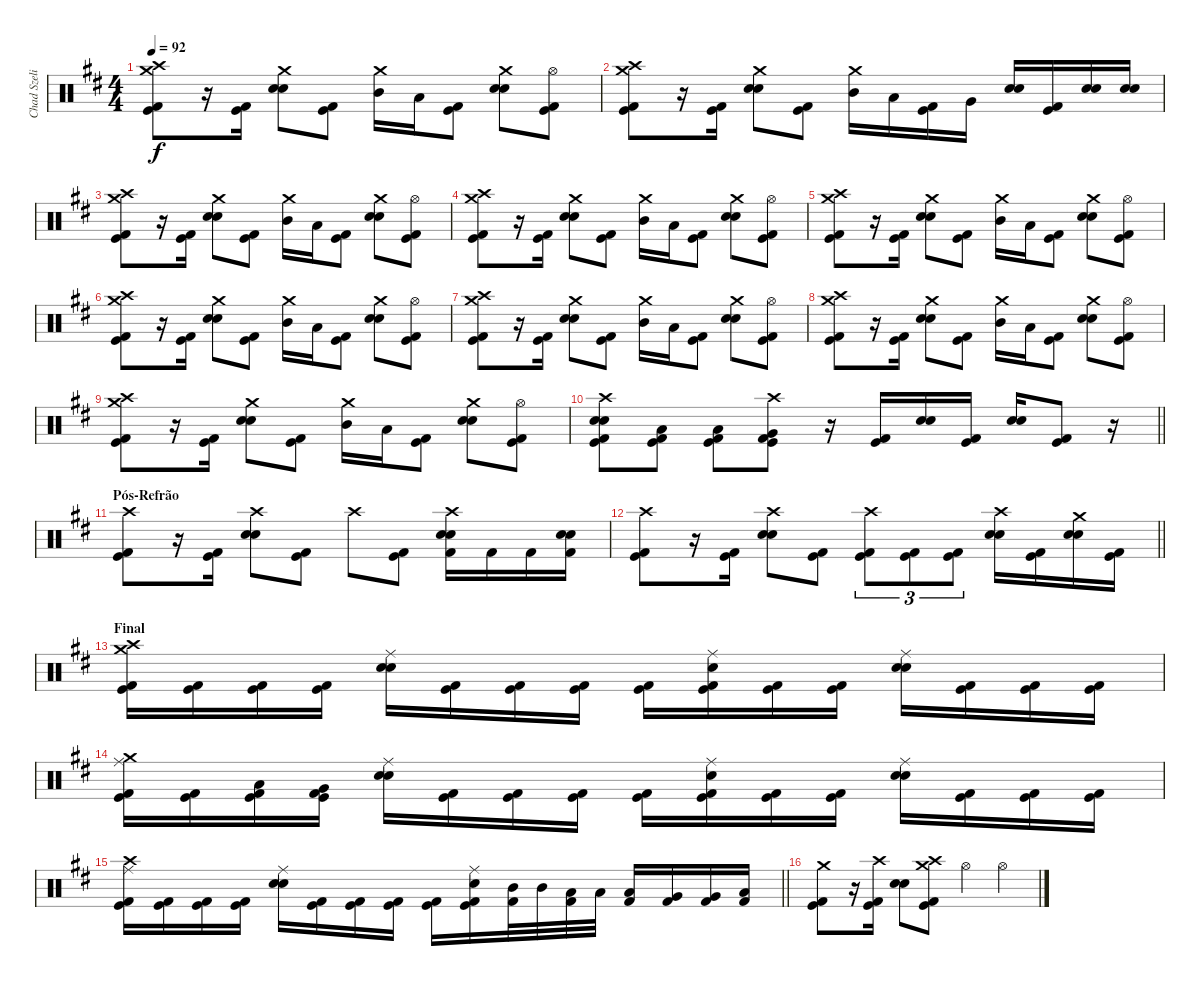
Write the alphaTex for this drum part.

\track ("Chad Szeliga" "Chad Szeli") {instrument percussion}
\staff {score}
\articulation defaults
\ts (4 4)
\tempo 92
\clef neutral
\ks d
("Crash high (hit)" "Kick (hit) 2" "Kick (hit)" "Crash medium (hit)").8{dy f} r.16 ("Kick (hit) 2" "Kick (hit)").16{beam Down} ("Crash medium (hit)" "Snare (hit) 2" "Snare (hit) 2").8 ("Kick (hit) 2" "Kick (hit)").8 ("Crash medium (hit)" "Mid Tom (hit)").16 "Low Tom (hit)".16 ("Kick (hit) 2" "Kick (hit)").8 ("Crash medium (hit)" "Snare (hit) 2" "Snare (hit) 2").8 ("Kick (hit) 2" "Kick (hit)" "Hi-Hat (open)").8 |
("Crash high (hit)" "Kick (hit) 2" "Kick (hit)" "Crash medium (hit)").8 r.16 ("Kick (hit) 2" "Kick (hit)").16{beam Down} ("Crash medium (hit)" "Snare (hit) 2" "Snare (hit) 2").8 ("Kick (hit) 2" "Kick (hit)").8 ("Crash medium (hit)" "Mid Tom (hit)").16 "Low Tom (hit)".16 ("Kick (hit) 2" "Kick (hit)").16 "Very Low Tom (hit)".16 ("Snare (hit) 2" "Snare (hit) 2").16 ("Kick (hit) 2" "Kick (hit)").16 ("Snare (hit) 2" "Snare (hit) 2").16 ("Snare (hit) 2" "Snare (hit) 2").16 |
("Crash high (hit)" "Kick (hit) 2" "Kick (hit)" "Crash medium (hit)").8 r.16 ("Kick (hit) 2" "Kick (hit)").16{beam Down} ("Crash medium (hit)" "Snare (hit) 2" "Snare (hit) 2").8 ("Kick (hit) 2" "Kick (hit)").8 ("Crash medium (hit)" "Mid Tom (hit)").16 "Low Tom (hit)".16 ("Kick (hit) 2" "Kick (hit)").8 ("Crash medium (hit)" "Snare (hit) 2" "Snare (hit) 2").8 ("Kick (hit) 2" "Kick (hit)" "Hi-Hat (open)").8 |
("Crash high (hit)" "Kick (hit) 2" "Kick (hit)" "Crash medium (hit)").8 r.16 ("Kick (hit) 2" "Kick (hit)").16{beam Down} ("Crash medium (hit)" "Snare (hit) 2" "Snare (hit) 2").8 ("Kick (hit) 2" "Kick (hit)").8 ("Crash medium (hit)" "Mid Tom (hit)").16 "Low Tom (hit)".16 ("Kick (hit) 2" "Kick (hit)").8 ("Crash medium (hit)" "Snare (hit) 2" "Snare (hit) 2").8 ("Kick (hit) 2" "Kick (hit)" "Hi-Hat (open)").8 |
("Crash high (hit)" "Kick (hit) 2" "Kick (hit)" "Crash medium (hit)").8 r.16 ("Kick (hit) 2" "Kick (hit)").16{beam Down} ("Crash medium (hit)" "Snare (hit) 2" "Snare (hit) 2").8 ("Kick (hit) 2" "Kick (hit)").8 ("Crash medium (hit)" "Mid Tom (hit)").16 "Low Tom (hit)".16 ("Kick (hit) 2" "Kick (hit)").8 ("Crash medium (hit)" "Snare (hit) 2" "Snare (hit) 2").8 ("Kick (hit) 2" "Kick (hit)" "Hi-Hat (open)").8 |
("Crash high (hit)" "Kick (hit) 2" "Kick (hit)" "Crash medium (hit)").8 r.16 ("Kick (hit) 2" "Kick (hit)").16{beam Down} ("Crash medium (hit)" "Snare (hit) 2" "Snare (hit) 2").8 ("Kick (hit) 2" "Kick (hit)").8 ("Crash medium (hit)" "Mid Tom (hit)").16 "Low Tom (hit)".16 ("Kick (hit) 2" "Kick (hit)").8 ("Crash medium (hit)" "Snare (hit) 2" "Snare (hit) 2").8 ("Kick (hit) 2" "Kick (hit)" "Hi-Hat (open)").8 |
("Crash high (hit)" "Kick (hit) 2" "Kick (hit)" "Crash medium (hit)").8 r.16 ("Kick (hit) 2" "Kick (hit)").16{beam Down} ("Crash medium (hit)" "Snare (hit) 2" "Snare (hit) 2").8 ("Kick (hit) 2" "Kick (hit)").8 ("Crash medium (hit)" "Mid Tom (hit)").16 "Low Tom (hit)".16 ("Kick (hit) 2" "Kick (hit)").8 ("Crash medium (hit)" "Snare (hit) 2" "Snare (hit) 2").8 ("Kick (hit) 2" "Kick (hit)" "Hi-Hat (open)").8 |
("Crash high (hit)" "Kick (hit) 2" "Kick (hit)" "Crash medium (hit)").8 r.16 ("Kick (hit) 2" "Kick (hit)").16{beam Down} ("Crash medium (hit)" "Snare (hit) 2" "Snare (hit) 2").8 ("Kick (hit) 2" "Kick (hit)").8 ("Crash medium (hit)" "Mid Tom (hit)").16 "Low Tom (hit)".16 ("Kick (hit) 2" "Kick (hit)").8 ("Crash medium (hit)" "Snare (hit) 2" "Snare (hit) 2").8 ("Kick (hit) 2" "Kick (hit)" "Hi-Hat (open)").8 |
("Crash high (hit)" "Kick (hit) 2" "Kick (hit)" "Crash medium (hit)").8 r.16 ("Kick (hit) 2" "Kick (hit)").16{beam Down} ("Crash medium (hit)" "Snare (hit) 2" "Snare (hit) 2").8 ("Kick (hit) 2" "Kick (hit)").8 ("Crash medium (hit)" "Mid Tom (hit)").16 "Low Tom (hit)".16 ("Kick (hit) 2" "Kick (hit)").8 ("Crash medium (hit)" "Snare (hit) 2" "Snare (hit) 2").8 ("Kick (hit) 2" "Kick (hit)" "Hi-Hat (open)").8 |
\barLineRight lightlight
("Crash high (hit)" "Kick (hit) 2" "Kick (hit)" "Snare (hit) 2" "Snare (hit) 2").8 ("Kick (hit) 2" "Kick (hit)" "Low Tom (hit)").8 ("Kick (hit) 2" "Kick (hit)" "Low Tom (hit)").8 ("Crash high (hit)" "Kick (hit) 2" "Kick (hit)" "Very Low Tom (hit)").8 r.16 ("Kick (hit) 2" "Kick (hit)").16 ("Snare (hit) 2" "Snare (hit) 2").16 ("Kick (hit) 2" "Kick (hit)").16 ("Snare (hit) 2" "Snare (hit) 2").16 ("Kick (hit) 2" "Kick (hit)").8 r.16 |
\section ("" "Pós-Refrão")
("Crash high (hit)" "Kick (hit) 2" "Kick (hit)").8 r.16 ("Kick (hit) 2" "Kick (hit)").16{beam Down} ("Crash high (hit)" "Snare (hit) 2" "Snare (hit) 2").8 ("Kick (hit) 2" "Kick (hit)").8 "Crash high (hit)".8 ("Kick (hit) 2" "Kick (hit)").8 ("Crash high (hit)" "Kick (hit) 2" "Snare (hit) 2" "Snare (hit) 2").16 "Kick (hit) 2".16 "Kick (hit) 2".16 ("Kick (hit) 2" "Snare (hit) 2" "Snare (hit) 2").16 |
\barLineRight lightlight
("Crash high (hit)" "Kick (hit) 2" "Kick (hit)").8 r.16 ("Kick (hit) 2" "Kick (hit)").16{beam Down} ("Crash high (hit)" "Snare (hit) 2" "Snare (hit) 2").8 ("Kick (hit) 2" "Kick (hit)").8 ("Crash high (hit)" "Kick (hit) 2" "Kick (hit)").8{tu (3 2)} ("Kick (hit) 2" "Kick (hit)").8{tu (3 2)} ("Kick (hit) 2" "Kick (hit)").8{tu (3 2)} ("Crash high (hit)" "Snare (hit) 2" "Snare (hit) 2").16 ("Kick (hit) 2" "Kick (hit)").16 ("Crash medium (hit)" "Snare (hit) 2" "Snare (hit) 2").16 ("Kick (hit) 2" "Kick (hit)").16 |
\section ("" "Final")
("Crash high (hit)" "Kick (hit) 2" "Kick (hit)" "Crash medium (hit)").16 ("Kick (hit) 2" "Kick (hit)").16 ("Kick (hit) 2" "Kick (hit)").16 ("Kick (hit) 2" "Kick (hit)").16 ("Snare (hit) 2" "Snare (hit) 2" "Ride (middle)").16 ("Kick (hit) 2" "Kick (hit)").16 ("Kick (hit) 2" "Kick (hit)").16 ("Kick (hit) 2" "Kick (hit)").16 ("Kick (hit) 2" "Kick (hit)").16 ("Kick (hit) 2" "Kick (hit)" "Snare (hit) 2" "Ride (middle)").16 ("Kick (hit) 2" "Kick (hit)").16 ("Kick (hit) 2" "Kick (hit)").16 ("Snare (hit) 2" "Snare (hit) 2" "Ride (middle)").16 ("Kick (hit) 2" "Kick (hit)").16 ("Kick (hit) 2" "Kick (hit)").16 ("Kick (hit) 2" "Kick (hit)").16 |
("Crash medium (hit)" "Kick (hit) 2" "Kick (hit)" "Ride (middle)").16 ("Kick (hit) 2" "Kick (hit)").16 ("Kick (hit) 2" "Kick (hit)" "Low Tom (hit)").16 ("Kick (hit) 2" "Kick (hit)" "Very Low Tom (hit)").16 ("Snare (hit) 2" "Snare (hit) 2" "Ride (middle)").16 ("Kick (hit) 2" "Kick (hit)").16 ("Kick (hit) 2" "Kick (hit)").16 ("Kick (hit) 2" "Kick (hit)").16 ("Kick (hit) 2" "Kick (hit)").16 ("Kick (hit) 2" "Kick (hit)" "Snare (hit) 2" "Ride (middle)").16 ("Kick (hit) 2" "Kick (hit)").16 ("Kick (hit) 2" "Kick (hit)").16 ("Snare (hit) 2" "Snare (hit) 2" "Ride (middle)").16 ("Kick (hit) 2" "Kick (hit)").16 ("Kick (hit) 2" "Kick (hit)").16 ("Kick (hit) 2" "Kick (hit)").16 |
\barLineRight lightlight
("Crash high (hit)" "Kick (hit) 2" "Kick (hit)" "Ride (middle)").16 ("Kick (hit) 2" "Kick (hit)").16 ("Kick (hit) 2" "Kick (hit)").16 ("Kick (hit) 2" "Kick (hit)").16 ("Snare (hit) 2" "Snare (hit) 2" "Ride (middle)").16 ("Kick (hit) 2" "Kick (hit)").16 ("Kick (hit) 2" "Kick (hit)").16 ("Kick (hit) 2" "Kick (hit)").16 ("Kick (hit) 2" "Kick (hit)").16 ("Kick (hit) 2" "Kick (hit)" "Snare (hit) 2" "Ride (middle)").16 ("Kick (hit) 2" "Mid Tom (hit)").32 "Mid Tom (hit)".32 ("Kick (hit) 2" "Low Tom (hit)").32 "Low Tom (hit)".32 ("Kick (hit) 2" "Low Tom (hit)").16 ("Kick (hit) 2" "Very Low Tom (hit)").16 ("Kick (hit) 2" "Very Low Tom (hit)").16 ("Kick (hit) 2" "Low Tom (hit)").16 |
("Crash medium (hit)" "Kick (hit) 2" "Kick (hit)").8 r.16 ("Crash high (hit)" "Kick (hit) 2" "Kick (hit)").16 ("Snare (hit) 2" "Snare (hit) 2").8 ("Crash high (hit)" "Kick (hit) 2" "Kick (hit)" "Crash medium (hit)").8 "Hi-Hat (open)".4 "Hi-Hat (open)".4
